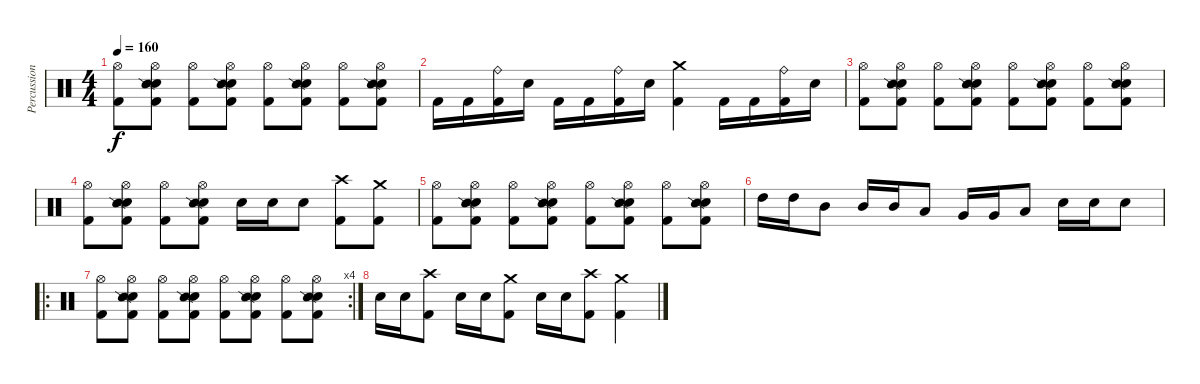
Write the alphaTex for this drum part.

\track ("Percussion" "Percussion") {instrument percussion}
\staff {score}
\articulation defaults
\ts (4 4)
\tempo 160
\clef neutral
\ks c
("Hi-Hat (open)" "Kick (hit) 2").8{dy f} ("Hi-Hat (open)" "Electric Snare (hit)" "Snare (side stick) 2" "Kick (hit) 2").8 ("Hi-Hat (open)" "Kick (hit) 2").8 ("Hi-Hat (open)" "Electric Snare (hit)" "Snare (side stick) 2" "Kick (hit) 2").8 ("Hi-Hat (open)" "Kick (hit) 2").8 ("Hi-Hat (open)" "Electric Snare (hit)" "Snare (side stick) 2" "Kick (hit) 2").8 ("Hi-Hat (open)" "Kick (hit) 2").8 ("Hi-Hat (open)" "Electric Snare (hit)" "Snare (side stick) 2" "Kick (hit) 2").8 |
"Kick (hit) 2".16 "Kick (hit) 2".16 ("Ride (bell)" "Kick (hit) 2").16 "Electric Snare (hit)".16 "Kick (hit) 2".16 "Kick (hit) 2".16 ("Ride (bell)" "Kick (hit) 2").16 "Electric Snare (hit)".16 ("Crash medium (hit)" "Kick (hit) 2").4 "Kick (hit) 2".16 "Kick (hit) 2".16 ("Ride (bell)" "Kick (hit) 2").16 "Electric Snare (hit)".16 |
("Hi-Hat (open)" "Kick (hit) 2").8 ("Hi-Hat (open)" "Electric Snare (hit)" "Snare (side stick) 2" "Kick (hit) 2").8 ("Hi-Hat (open)" "Kick (hit) 2").8 ("Hi-Hat (open)" "Electric Snare (hit)" "Snare (side stick) 2" "Kick (hit) 2").8 ("Hi-Hat (open)" "Kick (hit) 2").8 ("Hi-Hat (open)" "Electric Snare (hit)" "Snare (side stick) 2" "Kick (hit) 2").8 ("Hi-Hat (open)" "Kick (hit) 2").8 ("Hi-Hat (open)" "Electric Snare (hit)" "Snare (side stick) 2" "Kick (hit) 2").8 |
("Hi-Hat (open)" "Kick (hit) 2").8 ("Hi-Hat (open)" "Electric Snare (hit)" "Snare (side stick) 2" "Kick (hit) 2").8 ("Hi-Hat (open)" "Kick (hit) 2").8 ("Hi-Hat (open)" "Electric Snare (hit)" "Snare (side stick) 2" "Kick (hit) 2").8 "Electric Snare (hit)".16 "Electric Snare (hit)".16 "Electric Snare (hit)".8 ("Crash high (hit)" "Kick (hit) 2").8 ("Crash medium (hit)" "Kick (hit) 2").8 |
("Hi-Hat (open)" "Kick (hit) 2").8 ("Hi-Hat (open)" "Electric Snare (hit)" "Snare (side stick) 2" "Kick (hit) 2").8 ("Hi-Hat (open)" "Kick (hit) 2").8 ("Hi-Hat (open)" "Electric Snare (hit)" "Snare (side stick) 2" "Kick (hit) 2").8 ("Hi-Hat (open)" "Kick (hit) 2").8 ("Hi-Hat (open)" "Electric Snare (hit)" "Snare (side stick) 2" "Kick (hit) 2").8 ("Hi-Hat (open)" "Kick (hit) 2").8 ("Hi-Hat (open)" "Electric Snare (hit)" "Snare (side stick) 2" "Kick (hit) 2").8 |
"High Tom (hit)".16 "High Tom (hit)".16 "Mid Tom (hit)".8 "Mid Tom (hit)".16 "Mid Tom (hit)".16 "Low Tom (hit)".8 "Very Low Tom (hit)".16 "Very Low Tom (hit)".16 "Low Floor Tom (hit)".8 "Electric Snare (hit)".16 "Electric Snare (hit)".16 "Electric Snare (hit)".8 |
\ro
\rc 4
("Hi-Hat (open)" "Kick (hit) 2").8 ("Hi-Hat (open)" "Electric Snare (hit)" "Snare (side stick) 2" "Kick (hit) 2").8 ("Hi-Hat (open)" "Kick (hit) 2").8 ("Hi-Hat (open)" "Electric Snare (hit)" "Snare (side stick) 2" "Kick (hit) 2").8 ("Hi-Hat (open)" "Kick (hit) 2").8 ("Hi-Hat (open)" "Electric Snare (hit)" "Snare (side stick) 2" "Kick (hit) 2").8 ("Hi-Hat (open)" "Kick (hit) 2").8 ("Hi-Hat (open)" "Electric Snare (hit)" "Snare (side stick) 2" "Kick (hit) 2").8 |
"Electric Snare (hit)".16 "Electric Snare (hit)".16 ("Crash high (hit)" "Kick (hit) 2").8 "Electric Snare (hit)".16 "Electric Snare (hit)".16 ("Crash medium (hit)" "Kick (hit) 2").8 "Electric Snare (hit)".16 "Electric Snare (hit)".16 ("Crash high (hit)" "Kick (hit) 2").8 ("Crash medium (hit)" "Kick (hit) 2").4
